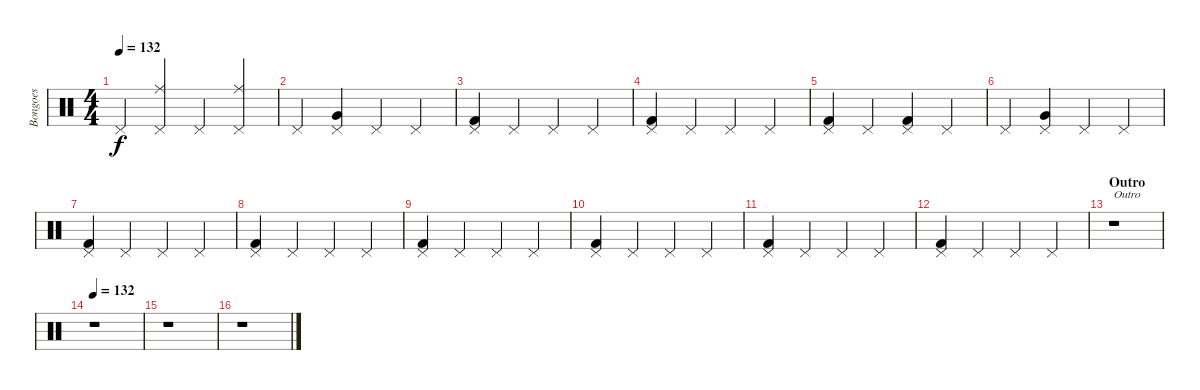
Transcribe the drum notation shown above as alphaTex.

\track ("Bongoes" "Bongoes") {instrument percussion}
\staff {score}
\articulation defaults
\ts (4 4)
\tempo 132
\clef neutral
\ks c "Pedal Hi-Hat (hit)".4{dy f}
("Pedal Hi-Hat (hit)" "Ride (middle)").4 "Pedal Hi-Hat (hit)".4 ("Pedal Hi-Hat (hit)" "Ride (middle)").4 |
"Pedal Hi-Hat (hit)".4 ("Pedal Hi-Hat (hit)" "Very Low Tom (hit)").4 "Pedal Hi-Hat (hit)".4 "Pedal Hi-Hat (hit)".4 |
("Pedal Hi-Hat (hit)" "Kick (hit) 2").4 "Pedal Hi-Hat (hit)".4 "Pedal Hi-Hat (hit)".4 "Pedal Hi-Hat (hit)".4 |
("Pedal Hi-Hat (hit)" "Kick (hit) 2").4 "Pedal Hi-Hat (hit)".4 "Pedal Hi-Hat (hit)".4 "Pedal Hi-Hat (hit)".4 |
("Pedal Hi-Hat (hit)" "Kick (hit) 2").4 "Pedal Hi-Hat (hit)".4 ("Pedal Hi-Hat (hit)" "Kick (hit) 2").4 "Pedal Hi-Hat (hit)".4 |
"Pedal Hi-Hat (hit)".4 ("Pedal Hi-Hat (hit)" "Very Low Tom (hit)").4 "Pedal Hi-Hat (hit)".4 "Pedal Hi-Hat (hit)".4 |
("Pedal Hi-Hat (hit)" "Kick (hit) 2").4 "Pedal Hi-Hat (hit)".4 "Pedal Hi-Hat (hit)".4 "Pedal Hi-Hat (hit)".4 |
("Pedal Hi-Hat (hit)" "Kick (hit) 2").4 "Pedal Hi-Hat (hit)".4 "Pedal Hi-Hat (hit)".4 "Pedal Hi-Hat (hit)".4 |
("Pedal Hi-Hat (hit)" "Kick (hit) 2").4 "Pedal Hi-Hat (hit)".4 "Pedal Hi-Hat (hit)".4 "Pedal Hi-Hat (hit)".4 |
("Pedal Hi-Hat (hit)" "Kick (hit) 2").4 "Pedal Hi-Hat (hit)".4 "Pedal Hi-Hat (hit)".4 "Pedal Hi-Hat (hit)".4 |
("Pedal Hi-Hat (hit)" "Kick (hit) 2").4 "Pedal Hi-Hat (hit)".4 "Pedal Hi-Hat (hit)".4 "Pedal Hi-Hat (hit)".4 |
("Pedal Hi-Hat (hit)" "Kick (hit) 2").4 "Pedal Hi-Hat (hit)".4 "Pedal Hi-Hat (hit)".4 "Pedal Hi-Hat (hit)".4 |
\section ("" "Outro")
r.1{txt "Outro"} |
\tempo 132
r.1 |
r.1 |
r.1
